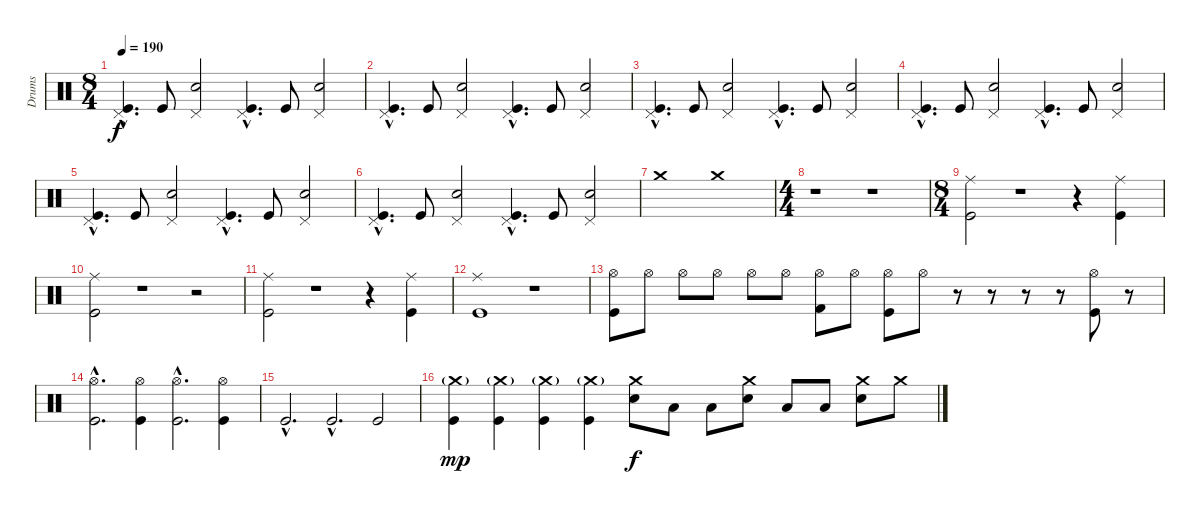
\track ("Drums" "Drums") {instrument percussion}
\staff {score}
\articulation defaults
\ts (8 4)
\tempo 190
\clef neutral
\ks c
("Pedal Hi-Hat (hit)"{hac} "Kick (hit)"{hac}).4{d dy f} "Kick (hit)".8 ("Pedal Hi-Hat (hit)" "Electric Snare (hit)").2 ("Pedal Hi-Hat (hit)"{hac} "Kick (hit)"{hac}).4{d} "Kick (hit)".8 ("Pedal Hi-Hat (hit)" "Electric Snare (hit)").2 |
("Pedal Hi-Hat (hit)"{hac} "Kick (hit)"{hac}).4{d} "Kick (hit)".8 ("Pedal Hi-Hat (hit)" "Electric Snare (hit)").2 ("Pedal Hi-Hat (hit)"{hac} "Kick (hit)"{hac}).4{d} "Kick (hit)".8 ("Pedal Hi-Hat (hit)" "Electric Snare (hit)").2 |
("Pedal Hi-Hat (hit)"{hac} "Kick (hit)"{hac}).4{d} "Kick (hit)".8 ("Pedal Hi-Hat (hit)" "Electric Snare (hit)").2 ("Pedal Hi-Hat (hit)"{hac} "Kick (hit)"{hac}).4{d} "Kick (hit)".8 ("Pedal Hi-Hat (hit)" "Electric Snare (hit)").2 |
("Pedal Hi-Hat (hit)"{hac} "Kick (hit)"{hac}).4{d} "Kick (hit)".8 ("Pedal Hi-Hat (hit)" "Electric Snare (hit)").2 ("Pedal Hi-Hat (hit)"{hac} "Kick (hit)"{hac}).4{d} "Kick (hit)".8 ("Pedal Hi-Hat (hit)" "Electric Snare (hit)").2 |
("Pedal Hi-Hat (hit)"{hac} "Kick (hit)"{hac}).4{d} "Kick (hit)".8 ("Pedal Hi-Hat (hit)" "Electric Snare (hit)").2 ("Pedal Hi-Hat (hit)"{hac} "Kick (hit)"{hac}).4{d} "Kick (hit)".8 ("Pedal Hi-Hat (hit)" "Electric Snare (hit)").2 |
("Pedal Hi-Hat (hit)"{hac} "Kick (hit)"{hac}).4{d} "Kick (hit)".8 ("Pedal Hi-Hat (hit)" "Electric Snare (hit)").2 ("Pedal Hi-Hat (hit)"{hac} "Kick (hit)"{hac}).4{d} "Kick (hit)".8 ("Pedal Hi-Hat (hit)" "Electric Snare (hit)").2 |
"Crash medium (hit)".1 "Crash medium (hit)".1 |
\ts (4 4)
r.1 r.1 |
\ts (8 4)
("Ride (middle)" "Kick (hit)").2 r.1 r.4 ("Ride (middle)" "Kick (hit)").4 |
("Ride (middle)" "Kick (hit)").2 r.1 r.2 |
("Ride (middle)" "Kick (hit)").2 r.1 r.4 ("Ride (middle)" "Kick (hit)").4 |
("Ride (middle)" "Kick (hit)").1 r.1{volume 0} |
("Hi-Hat (open)" "Kick (hit)").8{volume 13} "Hi-Hat (open)".8 "Hi-Hat (open)".8 "Hi-Hat (open)".8 "Hi-Hat (open)".8 "Hi-Hat (open)".8 ("Hi-Hat (open)" "Kick (hit) 2").8 "Hi-Hat (open)".8 ("Hi-Hat (open)" "Kick (hit)").8 "Hi-Hat (open)".8 r.8 r.8 r.8 r.8 ("Hi-Hat (open)" "Kick (hit)").8 r.8 |
("Hi-Hat (open)"{hac} "Kick (hit)"{hac}).2{d} ("Hi-Hat (open)" "Kick (hit)").4 ("Hi-Hat (open)"{hac} "Kick (hit)"{hac}).2{d} ("Hi-Hat (open)" "Kick (hit)").4 |
"Kick (hit)"{hac}.2{d} "Kick (hit)"{hac}.2{d} "Kick (hit)".2 |
("Crash medium (hit)"{g} "Kick (hit)").4{dy mp} ("Crash medium (hit)"{g} "Kick (hit)").4 ("Crash medium (hit)"{g} "Kick (hit)").4 ("Crash medium (hit)"{g} "Kick (hit)").4 ("Crash medium (hit)" "Electric Snare (hit)").8{dy f} "Low Tom (hit)".8 "Low Tom (hit)".8 ("Crash medium (hit)" "Electric Snare (hit)").8 "Low Tom (hit)".8 "Low Tom (hit)".8 ("Crash medium (hit)" "Electric Snare (hit)").8 "Crash medium (hit)".8
